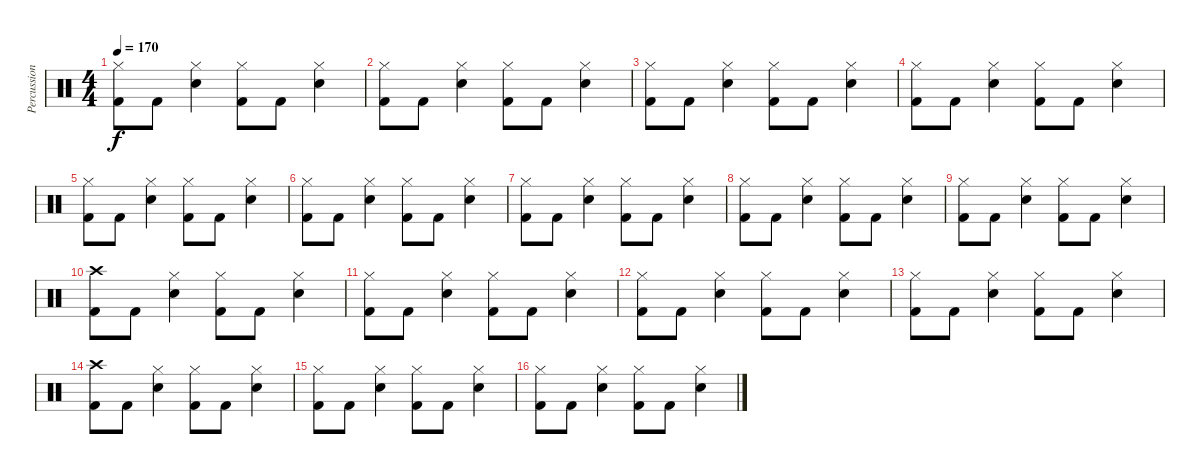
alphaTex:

\track ("Percussion" "Percussion") {instrument percussion}
\staff {score}
\articulation defaults
\ts (4 4)
\tempo 170
\clef neutral
\ks c
("Hi-Hat (closed)" "Kick (hit) 2").8{dy f} "Kick (hit) 2".8 ("Hi-Hat (closed)" "Electric Snare (hit)").4 ("Hi-Hat (closed)" "Kick (hit) 2").8 "Kick (hit) 2".8 ("Hi-Hat (closed)" "Electric Snare (hit)").4 |
("Hi-Hat (closed)" "Kick (hit) 2").8 "Kick (hit) 2".8 ("Hi-Hat (closed)" "Electric Snare (hit)").4 ("Hi-Hat (closed)" "Kick (hit) 2").8 "Kick (hit) 2".8 ("Hi-Hat (closed)" "Electric Snare (hit)").4 |
("Hi-Hat (closed)" "Kick (hit) 2").8 "Kick (hit) 2".8 ("Hi-Hat (closed)" "Electric Snare (hit)").4 ("Hi-Hat (closed)" "Kick (hit) 2").8 "Kick (hit) 2".8 ("Hi-Hat (closed)" "Electric Snare (hit)").4 |
("Hi-Hat (closed)" "Kick (hit) 2").8 "Kick (hit) 2".8 ("Hi-Hat (closed)" "Electric Snare (hit)").4 ("Hi-Hat (closed)" "Kick (hit) 2").8 "Kick (hit) 2".8 ("Hi-Hat (closed)" "Electric Snare (hit)").4 |
("Hi-Hat (closed)" "Kick (hit) 2").8 "Kick (hit) 2".8 ("Hi-Hat (closed)" "Electric Snare (hit)").4 ("Hi-Hat (closed)" "Kick (hit) 2").8 "Kick (hit) 2".8 ("Hi-Hat (closed)" "Electric Snare (hit)").4 |
("Hi-Hat (closed)" "Kick (hit) 2").8 "Kick (hit) 2".8 ("Hi-Hat (closed)" "Electric Snare (hit)").4 ("Hi-Hat (closed)" "Kick (hit) 2").8 "Kick (hit) 2".8 ("Hi-Hat (closed)" "Electric Snare (hit)").4 |
("Hi-Hat (closed)" "Kick (hit) 2").8 "Kick (hit) 2".8 ("Hi-Hat (closed)" "Electric Snare (hit)").4 ("Hi-Hat (closed)" "Kick (hit) 2").8 "Kick (hit) 2".8 ("Hi-Hat (closed)" "Electric Snare (hit)").4 |
("Hi-Hat (closed)" "Kick (hit) 2").8 "Kick (hit) 2".8 ("Hi-Hat (closed)" "Electric Snare (hit)").4 ("Hi-Hat (closed)" "Kick (hit) 2").8 "Kick (hit) 2".8 ("Hi-Hat (closed)" "Electric Snare (hit)").4 |
("Hi-Hat (closed)" "Kick (hit) 2").8 "Kick (hit) 2".8 ("Hi-Hat (closed)" "Electric Snare (hit)").4 ("Hi-Hat (closed)" "Kick (hit) 2").8 "Kick (hit) 2".8 ("Hi-Hat (closed)" "Electric Snare (hit)").4 |
("Crash high (hit)" "Kick (hit) 2").8 "Kick (hit) 2".8 ("Hi-Hat (closed)" "Electric Snare (hit)").4 ("Hi-Hat (closed)" "Kick (hit) 2").8 "Kick (hit) 2".8 ("Hi-Hat (closed)" "Electric Snare (hit)").4 |
("Hi-Hat (closed)" "Kick (hit) 2").8 "Kick (hit) 2".8 ("Hi-Hat (closed)" "Electric Snare (hit)").4 ("Hi-Hat (closed)" "Kick (hit) 2").8 "Kick (hit) 2".8 ("Hi-Hat (closed)" "Electric Snare (hit)").4 |
("Hi-Hat (closed)" "Kick (hit) 2").8 "Kick (hit) 2".8 ("Hi-Hat (closed)" "Electric Snare (hit)").4 ("Hi-Hat (closed)" "Kick (hit) 2").8 "Kick (hit) 2".8 ("Hi-Hat (closed)" "Electric Snare (hit)").4 |
("Hi-Hat (closed)" "Kick (hit) 2").8 "Kick (hit) 2".8 ("Hi-Hat (closed)" "Electric Snare (hit)").4 ("Hi-Hat (closed)" "Kick (hit) 2").8 "Kick (hit) 2".8 ("Hi-Hat (closed)" "Electric Snare (hit)").4 |
("Crash high (hit)" "Kick (hit) 2").8 "Kick (hit) 2".8 ("Hi-Hat (closed)" "Electric Snare (hit)").4 ("Hi-Hat (closed)" "Kick (hit) 2").8 "Kick (hit) 2".8 ("Hi-Hat (closed)" "Electric Snare (hit)").4 |
("Hi-Hat (closed)" "Kick (hit) 2").8 "Kick (hit) 2".8 ("Hi-Hat (closed)" "Electric Snare (hit)").4 ("Hi-Hat (closed)" "Kick (hit) 2").8 "Kick (hit) 2".8 ("Hi-Hat (closed)" "Electric Snare (hit)").4 |
("Hi-Hat (closed)" "Kick (hit) 2").8 "Kick (hit) 2".8 ("Hi-Hat (closed)" "Electric Snare (hit)").4 ("Hi-Hat (closed)" "Kick (hit) 2").8 "Kick (hit) 2".8 ("Hi-Hat (closed)" "Electric Snare (hit)").4
